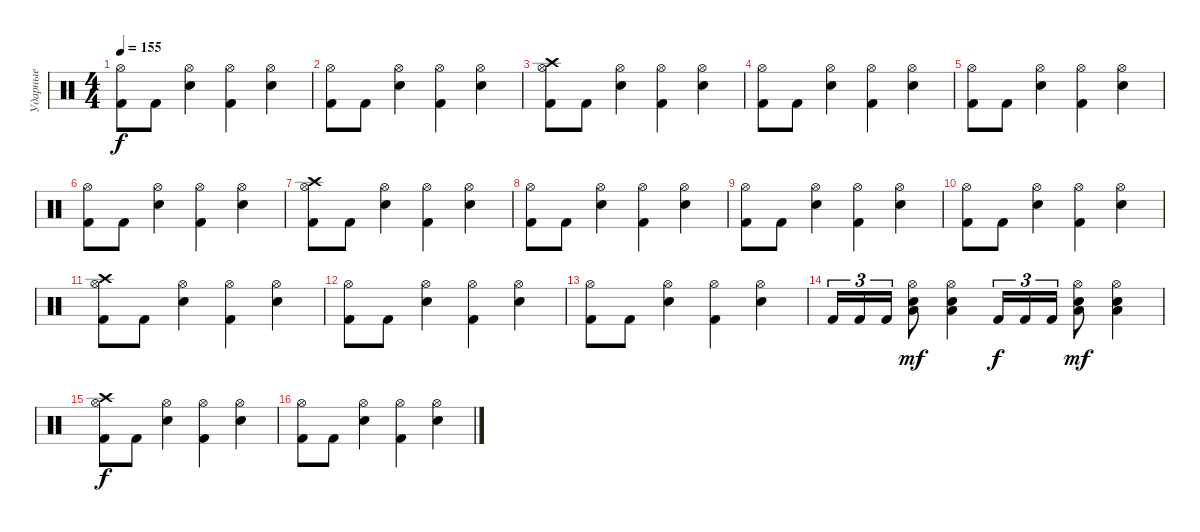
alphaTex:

\track ("Ударные" "Ударные") {instrument percussion}
\staff {score}
\articulation defaults
\ts (4 4)
\tempo 155
\clef neutral
\ks c
("Kick (hit) 2" "Hi-Hat (open)").8{dy f} "Kick (hit) 2".8 ("Snare (hit) 2" "Hi-Hat (open)").4 ("Kick (hit) 2" "Hi-Hat (open)").4 ("Snare (hit) 2" "Hi-Hat (open)").4 |
("Kick (hit) 2" "Hi-Hat (open)").8 "Kick (hit) 2".8 ("Snare (hit) 2" "Hi-Hat (open)").4 ("Kick (hit) 2" "Hi-Hat (open)").4 ("Snare (hit) 2" "Hi-Hat (open)").4 |
("Kick (hit) 2" "Hi-Hat (open)" "Crash high (hit)").8 "Kick (hit) 2".8 ("Snare (hit) 2" "Hi-Hat (open)").4 ("Kick (hit) 2" "Hi-Hat (open)").4 ("Snare (hit) 2" "Hi-Hat (open)").4 |
("Kick (hit) 2" "Hi-Hat (open)").8 "Kick (hit) 2".8 ("Snare (hit) 2" "Hi-Hat (open)").4 ("Kick (hit) 2" "Hi-Hat (open)").4 ("Snare (hit) 2" "Hi-Hat (open)").4 |
("Kick (hit) 2" "Hi-Hat (open)").8 "Kick (hit) 2".8 ("Snare (hit) 2" "Hi-Hat (open)").4 ("Kick (hit) 2" "Hi-Hat (open)").4 ("Snare (hit) 2" "Hi-Hat (open)").4 |
("Kick (hit) 2" "Hi-Hat (open)").8 "Kick (hit) 2".8 ("Snare (hit) 2" "Hi-Hat (open)").4 ("Kick (hit) 2" "Hi-Hat (open)").4 ("Snare (hit) 2" "Hi-Hat (open)").4 |
("Kick (hit) 2" "Hi-Hat (open)" "Crash high (hit)").8 "Kick (hit) 2".8 ("Snare (hit) 2" "Hi-Hat (open)").4 ("Kick (hit) 2" "Hi-Hat (open)").4 ("Snare (hit) 2" "Hi-Hat (open)").4 |
("Kick (hit) 2" "Hi-Hat (open)").8 "Kick (hit) 2".8 ("Snare (hit) 2" "Hi-Hat (open)").4 ("Kick (hit) 2" "Hi-Hat (open)").4 ("Snare (hit) 2" "Hi-Hat (open)").4 |
("Kick (hit) 2" "Hi-Hat (open)").8 "Kick (hit) 2".8 ("Snare (hit) 2" "Hi-Hat (open)").4 ("Kick (hit) 2" "Hi-Hat (open)").4 ("Snare (hit) 2" "Hi-Hat (open)").4 |
("Kick (hit) 2" "Hi-Hat (open)").8 "Kick (hit) 2".8 ("Snare (hit) 2" "Hi-Hat (open)").4 ("Kick (hit) 2" "Hi-Hat (open)").4 ("Snare (hit) 2" "Hi-Hat (open)").4 |
("Kick (hit) 2" "Hi-Hat (open)" "Crash high (hit)").8 "Kick (hit) 2".8 ("Snare (hit) 2" "Hi-Hat (open)").4 ("Kick (hit) 2" "Hi-Hat (open)").4 ("Snare (hit) 2" "Hi-Hat (open)").4 |
("Kick (hit) 2" "Hi-Hat (open)").8 "Kick (hit) 2".8 ("Snare (hit) 2" "Hi-Hat (open)").4 ("Kick (hit) 2" "Hi-Hat (open)").4 ("Snare (hit) 2" "Hi-Hat (open)").4 |
("Kick (hit) 2" "Hi-Hat (open)").8 "Kick (hit) 2".8 ("Snare (hit) 2" "Hi-Hat (open)").4 ("Kick (hit) 2" "Hi-Hat (open)").4 ("Snare (hit) 2" "Hi-Hat (open)").4 |
"Kick (hit) 2".16{tu (3 2)} "Kick (hit) 2".16{tu (3 2)} "Kick (hit) 2".16{tu (3 2)} ("Snare (hit) 2" "Hi-Hat (open)" "Low Floor Tom (hit)").8{dy mf} ("Snare (hit) 2" "Hi-Hat (open)" "Low Floor Tom (hit)").4 "Kick (hit) 2".16{tu (3 2) dy f} "Kick (hit) 2".16{tu (3 2)} "Kick (hit) 2".16{tu (3 2)} ("Snare (hit) 2" "Hi-Hat (open)" "Low Floor Tom (hit)").8{dy mf} ("Snare (hit) 2" "Hi-Hat (open)" "Low Floor Tom (hit)").4 |
("Kick (hit) 2" "Hi-Hat (open)" "Crash high (hit)").8{dy f} "Kick (hit) 2".8 ("Snare (hit) 2" "Hi-Hat (open)").4 ("Kick (hit) 2" "Hi-Hat (open)").4 ("Snare (hit) 2" "Hi-Hat (open)").4 |
("Kick (hit) 2" "Hi-Hat (open)").8 "Kick (hit) 2".8 ("Snare (hit) 2" "Hi-Hat (open)").4 ("Kick (hit) 2" "Hi-Hat (open)").4 ("Snare (hit) 2" "Hi-Hat (open)").4
